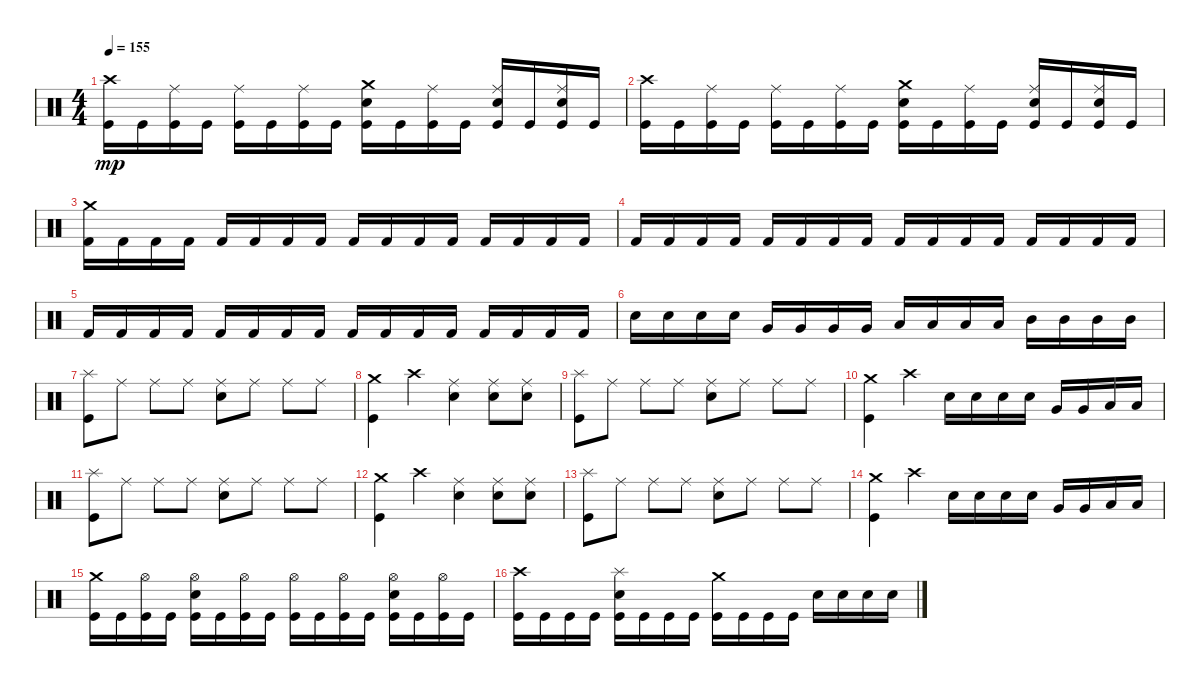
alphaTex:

\track "" {instrument percussion}
\staff {score}
\articulation defaults
\ts (4 4)
\tempo 155
\clef neutral
\ks c
("Crash high (hit)" "Kick (hit)").16{dy mp} "Kick (hit)".16 ("Kick (hit)" "Ride (middle)").16 "Kick (hit)".16 ("Kick (hit)" "Ride (middle)").16 "Kick (hit)".16 ("Kick (hit)" "Ride (middle)").16 "Kick (hit)".16 ("Kick (hit)" "Snare (hit) 2" "Crash medium (hit)").16 "Kick (hit)".16 ("Kick (hit)" "Ride (middle)").16 "Kick (hit)".16 ("Kick (hit)" "Ride (middle)" "Snare (hit) 2").16 "Kick (hit)".16 ("Kick (hit)" "Ride (middle)" "Snare (hit) 2").16 "Kick (hit)".16 |
("Kick (hit)" "Crash high (hit)").16 "Kick (hit)".16 ("Kick (hit)" "Ride (middle)").16 "Kick (hit)".16 ("Kick (hit)" "Ride (middle)").16 "Kick (hit)".16 ("Kick (hit)" "Ride (middle)").16 "Kick (hit)".16 ("Kick (hit)" "Snare (hit) 2" "Crash medium (hit)").16 "Kick (hit)".16 ("Kick (hit)" "Ride (middle)").16 "Kick (hit)".16 ("Ride (middle)" "Kick (hit)" "Snare (hit) 2").16 "Kick (hit)".16 ("Ride (middle)" "Kick (hit)" "Snare (hit) 2").16 "Kick (hit)".16 |
("Kick (hit) 2" "Crash medium (hit)").16 "Kick (hit) 2".16 "Kick (hit) 2".16 "Kick (hit) 2".16 "Kick (hit) 2".16 "Kick (hit) 2".16 "Kick (hit) 2".16 "Kick (hit) 2".16 "Kick (hit) 2".16 "Kick (hit) 2".16 "Kick (hit) 2".16 "Kick (hit) 2".16 "Kick (hit) 2".16 "Kick (hit) 2".16 "Kick (hit) 2".16 "Kick (hit) 2".16 |
"Kick (hit) 2".16 "Kick (hit) 2".16 "Kick (hit) 2".16 "Kick (hit) 2".16 "Kick (hit) 2".16 "Kick (hit) 2".16 "Kick (hit) 2".16 "Kick (hit) 2".16 "Kick (hit) 2".16 "Kick (hit) 2".16 "Kick (hit) 2".16 "Kick (hit) 2".16 "Kick (hit) 2".16 "Kick (hit) 2".16 "Kick (hit) 2".16 "Kick (hit) 2".16 |
"Kick (hit) 2".16 "Kick (hit) 2".16 "Kick (hit) 2".16 "Kick (hit) 2".16 "Kick (hit) 2".16 "Kick (hit) 2".16 "Kick (hit) 2".16 "Kick (hit) 2".16 "Kick (hit) 2".16 "Kick (hit) 2".16 "Kick (hit) 2".16 "Kick (hit) 2".16 "Kick (hit) 2".16 "Kick (hit) 2".16 "Kick (hit) 2".16 "Kick (hit) 2".16 |
"Snare (hit) 2".16 "Snare (hit) 2".16 "Snare (hit) 2".16 "Snare (hit) 2".16 "Very Low Tom (hit)".16 "Very Low Tom (hit)".16 "Very Low Tom (hit)".16 "Very Low Tom (hit)".16 "Low Tom (hit)".16 "Low Tom (hit)".16 "Low Tom (hit)".16 "Low Tom (hit)".16 "Mid Tom (hit)".16 "Mid Tom (hit)".16 "Mid Tom (hit)".16 "Mid Tom (hit)".16 |
("Kick (hit)" "Splash (hit)").8 "Ride (middle)".8 "Ride (middle)".8 "Ride (middle)".8 ("Snare (hit) 2" "Ride (middle)").8 "Ride (middle)".8 "Ride (middle)".8 "Ride (middle)".8 |
("Crash medium (hit)" "Kick (hit)").4 "Crash high (hit)".4 ("Snare (hit) 2" "Ride (middle)").4 ("Snare (hit) 2" "Ride (middle)").8 ("Snare (hit) 2" "Ride (middle)").8 |
("Splash (hit)" "Kick (hit)").8 "Ride (middle)".8 "Ride (middle)".8 "Ride (middle)".8 ("Snare (hit) 2" "Ride (middle)").8 "Ride (middle)".8 "Ride (middle)".8 "Ride (middle)".8 |
("Crash medium (hit)" "Kick (hit)").4 "Crash high (hit)".4 "Snare (hit) 2".16 "Snare (hit) 2".16 "Snare (hit) 2".16 "Snare (hit) 2".16 "Very Low Tom (hit)".16 "Very Low Tom (hit)".16 "Low Tom (hit)".16 "Low Tom (hit)".16 |
("Kick (hit)" "Splash (hit)").8 "Ride (middle)".8 "Ride (middle)".8 "Ride (middle)".8 ("Snare (hit) 2" "Ride (middle)").8 "Ride (middle)".8 "Ride (middle)".8 "Ride (middle)".8 |
("Crash medium (hit)" "Kick (hit)").4 "Crash high (hit)".4 ("Snare (hit) 2" "Ride (middle)").4 ("Snare (hit) 2" "Ride (middle)").8 ("Snare (hit) 2" "Ride (middle)").8 |
("Splash (hit)" "Kick (hit)").8 "Ride (middle)".8 "Ride (middle)".8 "Ride (middle)".8 ("Snare (hit) 2" "Ride (middle)").8 "Ride (middle)".8 "Ride (middle)".8 "Ride (middle)".8 |
("Crash medium (hit)" "Kick (hit)").4 "Crash high (hit)".4 "Snare (hit) 2".16 "Snare (hit) 2".16 "Snare (hit) 2".16 "Snare (hit) 2".16 "Very Low Tom (hit)".16 "Very Low Tom (hit)".16 "Low Tom (hit)".16 "Low Tom (hit)".16 |
("Crash medium (hit)" "Kick (hit)").16 "Kick (hit)".16 ("Kick (hit)" "Hi-Hat (open)").16 "Kick (hit)".16 ("Kick (hit)" "Snare (hit) 2" "Hi-Hat (open)").16 "Kick (hit)".16 ("Kick (hit)" "Hi-Hat (open)").16 "Kick (hit)".16 ("Kick (hit)" "Hi-Hat (open)").16 "Kick (hit)".16 ("Kick (hit)" "Hi-Hat (open)").16 "Kick (hit)".16 ("Kick (hit)" "Snare (hit) 2" "Hi-Hat (open)").16 "Kick (hit)".16 ("Kick (hit)" "Hi-Hat (open)").16 "Kick (hit)".16 |
("Kick (hit)" "Crash high (hit)").16 "Kick (hit)".16 "Kick (hit)".16 "Kick (hit)".16 ("Kick (hit)" "Snare (hit) 2" "Splash (hit)").16 "Kick (hit)".16 "Kick (hit)".16 "Kick (hit)".16 ("Kick (hit)" "Crash medium (hit)").16 "Kick (hit)".16 "Kick (hit)".16 "Kick (hit)".16 "Snare (hit) 2".16 "Snare (hit) 2".16 "Snare (hit) 2".16 "Snare (hit) 2".16
